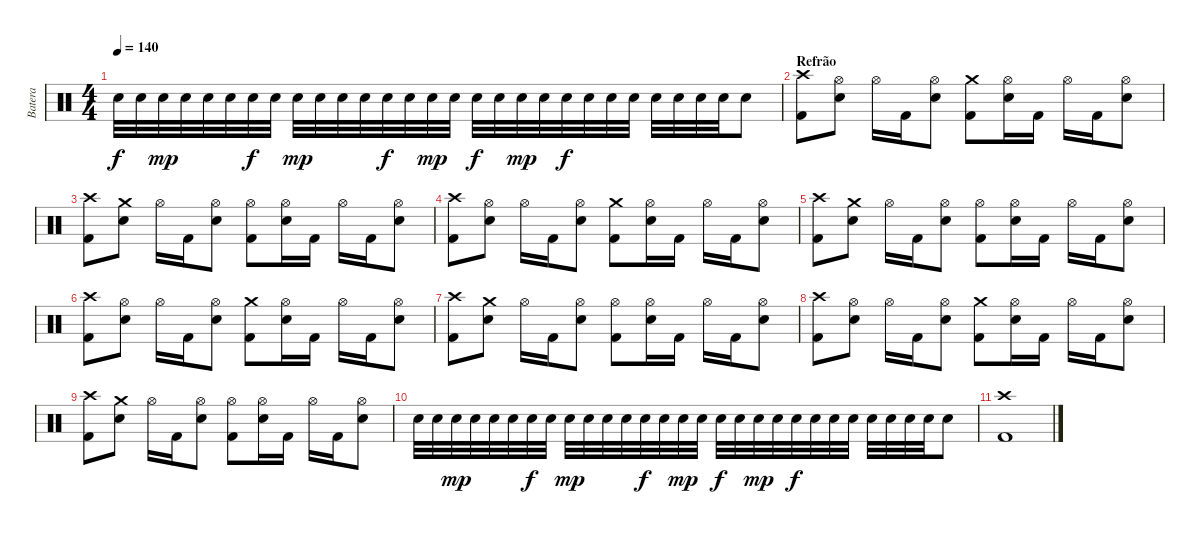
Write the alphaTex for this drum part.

\track ("Batera" "Batera") {instrument percussion}
\staff {score}
\articulation defaults
\ts (4 4)
\tempo 140
\clef neutral
\ks c "Snare (hit) 2".32{dy f} "Snare (hit) 2".32 "Snare (hit) 2".32{dy mp} "Snare (hit) 2".32 "Snare (hit) 2".32 "Snare (hit) 2".32 "Snare (hit) 2".32{dy f} "Snare (hit) 2".32 "Snare (hit) 2".32{dy mp} "Snare (hit) 2".32 "Snare (hit) 2".32 "Snare (hit) 2".32 "Snare (hit) 2".32{dy f} "Snare (hit) 2".32 "Snare (hit) 2".32{dy mp} "Snare (hit) 2".32 "Snare (hit) 2".32{dy f} "Snare (hit) 2".32 "Snare (hit) 2".32{dy mp} "Snare (hit) 2".32 "Snare (hit) 2".32{dy f} "Snare (hit) 2".32 "Snare (hit) 2".32 "Snare (hit) 2".32 "Snare (hit) 2".32 "Snare (hit) 2".32 "Snare (hit) 2".32 "Snare (hit) 2".32 "Snare (hit) 2".8
|
\section ("" "Refrão")
("Crash high (hit)" "Kick (hit) 2").8 ("Hi-Hat (open)" "Snare (hit) 2").8 "Hi-Hat (open)".16 "Kick (hit) 2".16 ("Hi-Hat (open)" "Snare (hit) 2").8 ("Crash medium (hit)" "Kick (hit) 2").8 ("Hi-Hat (open)" "Snare (hit) 2").16 "Kick (hit) 2".16 "Hi-Hat (open)".16 "Kick (hit) 2".16 ("Hi-Hat (open)" "Snare (hit) 2").8 |
("Crash high (hit)" "Kick (hit) 2").8 ("Crash medium (hit)" "Snare (hit) 2").8 "Hi-Hat (open)".16 "Kick (hit) 2".16 ("Hi-Hat (open)" "Snare (hit) 2").8 ("Hi-Hat (open)" "Kick (hit) 2").8 ("Hi-Hat (open)" "Snare (hit) 2").16 "Kick (hit) 2".16 "Hi-Hat (open)".16 "Kick (hit) 2".16 ("Hi-Hat (open)" "Snare (hit) 2").8 |
("Crash high (hit)" "Kick (hit) 2").8 ("Hi-Hat (open)" "Snare (hit) 2").8 "Hi-Hat (open)".16 "Kick (hit) 2".16 ("Hi-Hat (open)" "Snare (hit) 2").8 ("Crash medium (hit)" "Kick (hit) 2").8 ("Hi-Hat (open)" "Snare (hit) 2").16 "Kick (hit) 2".16 "Hi-Hat (open)".16 "Kick (hit) 2".16 ("Hi-Hat (open)" "Snare (hit) 2").8 |
("Crash high (hit)" "Kick (hit) 2").8 ("Crash medium (hit)" "Snare (hit) 2").8 "Hi-Hat (open)".16 "Kick (hit) 2".16 ("Hi-Hat (open)" "Snare (hit) 2").8 ("Hi-Hat (open)" "Kick (hit) 2").8 ("Hi-Hat (open)" "Snare (hit) 2").16 "Kick (hit) 2".16 "Hi-Hat (open)".16 "Kick (hit) 2".16 ("Hi-Hat (open)" "Snare (hit) 2").8 |
("Crash high (hit)" "Kick (hit) 2").8 ("Hi-Hat (open)" "Snare (hit) 2").8 "Hi-Hat (open)".16 "Kick (hit) 2".16 ("Hi-Hat (open)" "Snare (hit) 2").8 ("Crash medium (hit)" "Kick (hit) 2").8 ("Hi-Hat (open)" "Snare (hit) 2").16 "Kick (hit) 2".16 "Hi-Hat (open)".16 "Kick (hit) 2".16 ("Hi-Hat (open)" "Snare (hit) 2").8 |
("Crash high (hit)" "Kick (hit) 2").8 ("Crash medium (hit)" "Snare (hit) 2").8 "Hi-Hat (open)".16 "Kick (hit) 2".16 ("Hi-Hat (open)" "Snare (hit) 2").8 ("Hi-Hat (open)" "Kick (hit) 2").8 ("Hi-Hat (open)" "Snare (hit) 2").16 "Kick (hit) 2".16 "Hi-Hat (open)".16 "Kick (hit) 2".16 ("Hi-Hat (open)" "Snare (hit) 2").8 |
("Crash high (hit)" "Kick (hit) 2").8 ("Hi-Hat (open)" "Snare (hit) 2").8 "Hi-Hat (open)".16 "Kick (hit) 2".16 ("Hi-Hat (open)" "Snare (hit) 2").8 ("Crash medium (hit)" "Kick (hit) 2").8 ("Hi-Hat (open)" "Snare (hit) 2").16 "Kick (hit) 2".16 "Hi-Hat (open)".16 "Kick (hit) 2".16 ("Hi-Hat (open)" "Snare (hit) 2").8 |
("Crash high (hit)" "Kick (hit) 2").8 ("Crash medium (hit)" "Snare (hit) 2").8 "Hi-Hat (open)".16 "Kick (hit) 2".16 ("Hi-Hat (open)" "Snare (hit) 2").8 ("Hi-Hat (open)" "Kick (hit) 2").8 ("Hi-Hat (open)" "Snare (hit) 2").16 "Kick (hit) 2".16 "Hi-Hat (open)".16 "Kick (hit) 2".16 ("Hi-Hat (open)" "Snare (hit) 2").8 |
"Snare (hit) 2".32 "Snare (hit) 2".32 "Snare (hit) 2".32{dy mp} "Snare (hit) 2".32 "Snare (hit) 2".32 "Snare (hit) 2".32 "Snare (hit) 2".32{dy f} "Snare (hit) 2".32 "Snare (hit) 2".32{dy mp} "Snare (hit) 2".32 "Snare (hit) 2".32 "Snare (hit) 2".32 "Snare (hit) 2".32{dy f} "Snare (hit) 2".32 "Snare (hit) 2".32{dy mp} "Snare (hit) 2".32 "Snare (hit) 2".32{dy f} "Snare (hit) 2".32 "Snare (hit) 2".32{dy mp} "Snare (hit) 2".32 "Snare (hit) 2".32{dy f} "Snare (hit) 2".32 "Snare (hit) 2".32 "Snare (hit) 2".32 "Snare (hit) 2".32 "Snare (hit) 2".32 "Snare (hit) 2".32 "Snare (hit) 2".32 "Snare (hit) 2".8 |
("Crash high (hit)" "Kick (hit) 2").1
